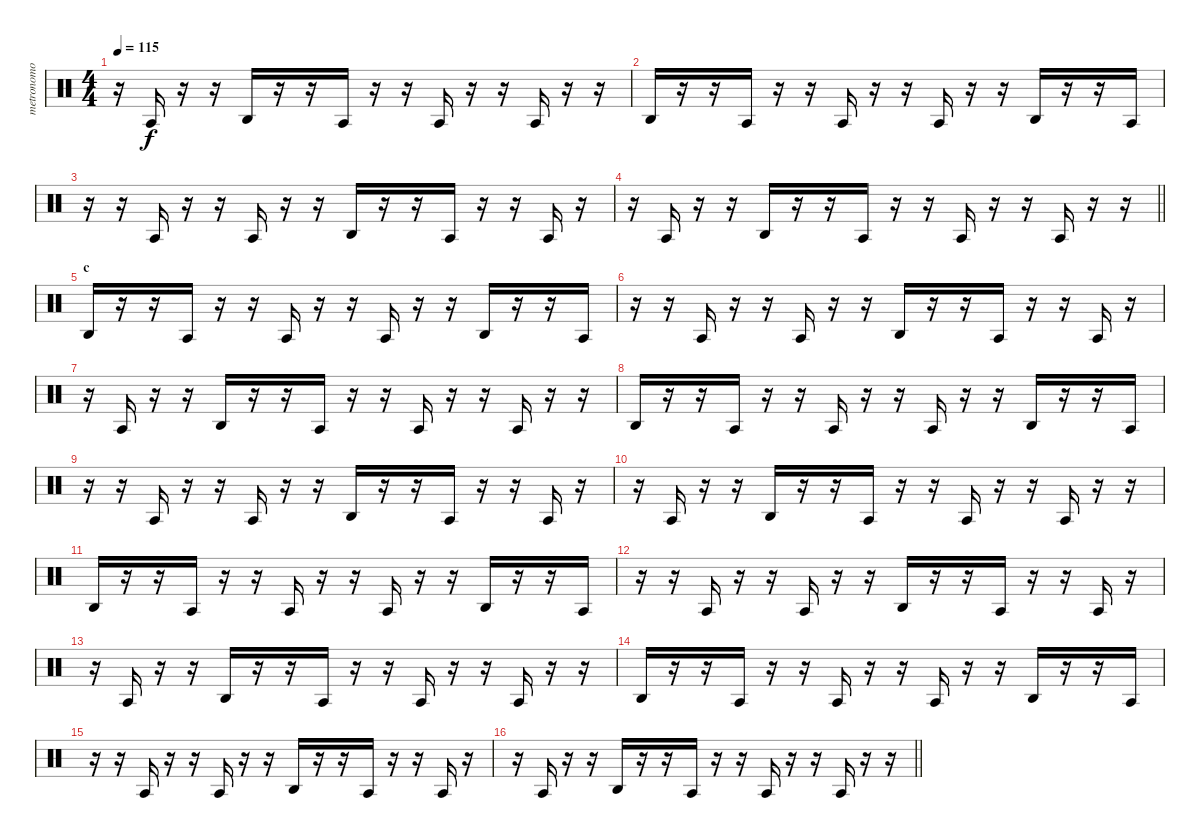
\track ("metronomo" "metronomo") {mute instrument percussion}
\staff {score}
\articulation defaults
\ts (4 4)
\tempo 115
\clef neutral
\ks c
r.16{dy f} "Agogo tow (hit)".16 r.16 r.16 "Agogo high (hit)".16 r.16 r.16 "Agogo tow (hit)".16 r.16 r.16 "Agogo tow (hit)".16 r.16 r.16 "Agogo tow (hit)".16 r.16 r.16 |
"Agogo high (hit)".16 r.16 r.16 "Agogo tow (hit)".16 r.16 r.16 "Agogo tow (hit)".16 r.16 r.16 "Agogo tow (hit)".16 r.16 r.16 "Agogo high (hit)".16 r.16 r.16 "Agogo tow (hit)".16 |
r.16 r.16 "Agogo tow (hit)".16 r.16 r.16 "Agogo tow (hit)".16 r.16 r.16 "Agogo high (hit)".16 r.16 r.16 "Agogo tow (hit)".16 r.16 r.16 "Agogo tow (hit)".16 r.16 |
\barLineRight lightlight
r.16 "Agogo tow (hit)".16 r.16 r.16 "Agogo high (hit)".16 r.16 r.16 "Agogo tow (hit)".16 r.16 r.16 "Agogo tow (hit)".16 r.16 r.16 "Agogo tow (hit)".16 r.16 r.16 |
\section ("" "c")
"Agogo high (hit)".16 r.16 r.16 "Agogo tow (hit)".16 r.16 r.16 "Agogo tow (hit)".16 r.16 r.16 "Agogo tow (hit)".16 r.16 r.16 "Agogo high (hit)".16 r.16 r.16 "Agogo tow (hit)".16 |
r.16 r.16 "Agogo tow (hit)".16 r.16 r.16 "Agogo tow (hit)".16 r.16 r.16 "Agogo high (hit)".16 r.16 r.16 "Agogo tow (hit)".16 r.16 r.16 "Agogo tow (hit)".16 r.16 |
r.16 "Agogo tow (hit)".16 r.16 r.16 "Agogo high (hit)".16 r.16 r.16 "Agogo tow (hit)".16 r.16 r.16 "Agogo tow (hit)".16 r.16 r.16 "Agogo tow (hit)".16 r.16 r.16 |
"Agogo high (hit)".16 r.16 r.16 "Agogo tow (hit)".16 r.16 r.16 "Agogo tow (hit)".16 r.16 r.16 "Agogo tow (hit)".16 r.16 r.16 "Agogo high (hit)".16 r.16 r.16 "Agogo tow (hit)".16 |
r.16 r.16 "Agogo tow (hit)".16 r.16 r.16 "Agogo tow (hit)".16 r.16 r.16 "Agogo high (hit)".16 r.16 r.16 "Agogo tow (hit)".16 r.16 r.16 "Agogo tow (hit)".16 r.16 |
r.16 "Agogo tow (hit)".16 r.16 r.16 "Agogo high (hit)".16 r.16 r.16 "Agogo tow (hit)".16 r.16 r.16 "Agogo tow (hit)".16 r.16 r.16 "Agogo tow (hit)".16 r.16 r.16 |
"Agogo high (hit)".16 r.16 r.16 "Agogo tow (hit)".16 r.16 r.16 "Agogo tow (hit)".16 r.16 r.16 "Agogo tow (hit)".16 r.16 r.16 "Agogo high (hit)".16 r.16 r.16 "Agogo tow (hit)".16 |
r.16 r.16 "Agogo tow (hit)".16 r.16 r.16 "Agogo tow (hit)".16 r.16 r.16 "Agogo high (hit)".16 r.16 r.16 "Agogo tow (hit)".16 r.16 r.16 "Agogo tow (hit)".16 r.16 |
r.16 "Agogo tow (hit)".16 r.16 r.16 "Agogo high (hit)".16 r.16 r.16 "Agogo tow (hit)".16 r.16 r.16 "Agogo tow (hit)".16 r.16 r.16 "Agogo tow (hit)".16 r.16 r.16 |
"Agogo high (hit)".16 r.16 r.16 "Agogo tow (hit)".16 r.16 r.16 "Agogo tow (hit)".16 r.16 r.16 "Agogo tow (hit)".16 r.16 r.16 "Agogo high (hit)".16 r.16 r.16 "Agogo tow (hit)".16 |
r.16 r.16 "Agogo tow (hit)".16 r.16 r.16 "Agogo tow (hit)".16 r.16 r.16 "Agogo high (hit)".16 r.16 r.16 "Agogo tow (hit)".16 r.16 r.16 "Agogo tow (hit)".16 r.16 |
\barLineRight lightlight
r.16 "Agogo tow (hit)".16 r.16 r.16 "Agogo high (hit)".16 r.16 r.16 "Agogo tow (hit)".16 r.16 r.16 "Agogo tow (hit)".16 r.16 r.16 "Agogo tow (hit)".16 r.16 r.16
